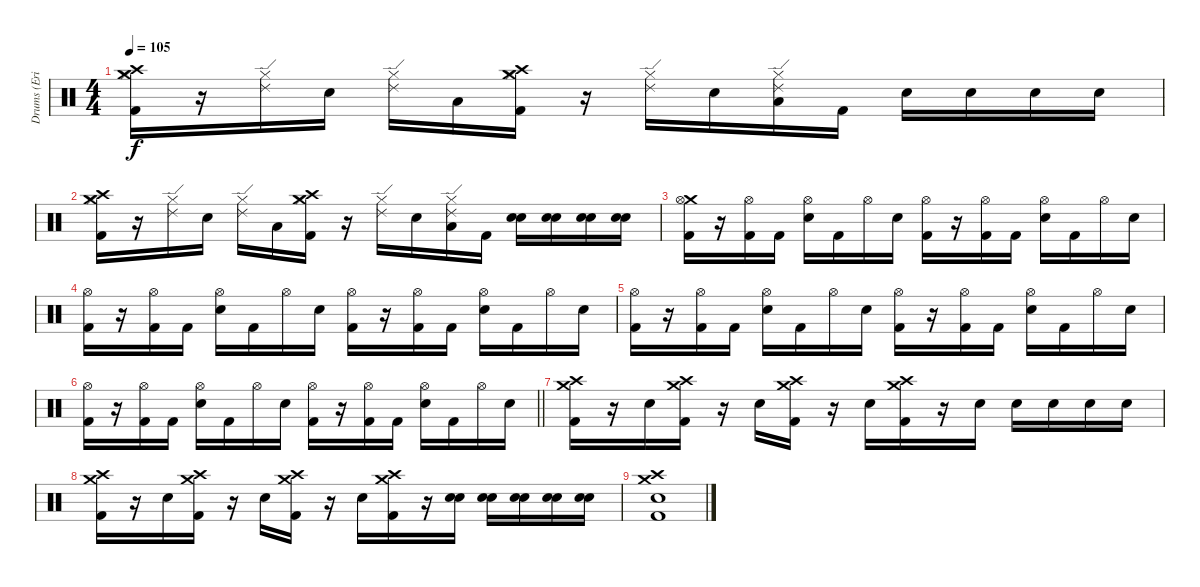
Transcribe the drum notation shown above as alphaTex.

\track ("Drums (Eric Kretz)" "Drums (Eri") {instrument percussion}
\staff {score}
\articulation defaults
\ts (4 4)
\tempo 105
\clef neutral
\ks c
("Crash medium (hit)" "Crash high (hit)" "Hi-Hat (closed)" "Kick (hit) 2").16{dy f} r.16 ("Ride (edge) 2" "Hi-Hat (closed)").16 "Electric Snare (hit)".16 ("Ride (edge) 2" "Hi-Hat (closed)").16 "Low Tom (hit)".16 ("Crash medium (hit)" "Crash high (hit)" "Hi-Hat (closed)" "Kick (hit) 2").16 r.16 ("Ride (edge) 2" "Hi-Hat (closed)").16 "Electric Snare (hit)".16 ("Ride (edge) 2" "Hi-Hat (closed)" "Low Tom (hit)").16 "Kick (hit) 2".16 "Electric Snare (hit)".16 "Electric Snare (hit)".16 "Electric Snare (hit)".16 "Electric Snare (hit)".16 |
("Crash medium (hit)" "Crash high (hit)" "Hi-Hat (closed)" "Kick (hit) 2").16 r.16 ("Ride (edge) 2" "Hi-Hat (closed)").16 "Electric Snare (hit)".16 ("Ride (edge) 2" "Hi-Hat (closed)").16 "Low Tom (hit)".16 ("Crash medium (hit)" "Crash high (hit)" "Hi-Hat (closed)" "Kick (hit) 2").16 r.16 ("Ride (edge) 2" "Hi-Hat (closed)").16 "Electric Snare (hit)".16 ("Ride (edge) 2" "Hi-Hat (closed)" "Low Tom (hit)").16 "Kick (hit) 2".16 ("Snare (hit) 2" "Electric Snare (hit)").16 ("Snare (hit) 2" "Electric Snare (hit)").16 ("Snare (hit) 2" "Electric Snare (hit)").16 ("Snare (hit) 2" "Electric Snare (hit)").16 |
("Crash medium (hit)" "Hi-Hat (open)" "Kick (hit) 2").16 r.16 ("Hi-Hat (open)" "Kick (hit) 2").16 "Kick (hit) 2".16 ("Hi-Hat (open)" "Electric Snare (hit)").16 "Kick (hit) 2".16 "Hi-Hat (open)".16 "Electric Snare (hit)".16 ("Hi-Hat (open)" "Kick (hit) 2").16 r.16 ("Hi-Hat (open)" "Kick (hit) 2").16 "Kick (hit) 2".16 ("Hi-Hat (open)" "Electric Snare (hit)").16 "Kick (hit) 2".16 "Hi-Hat (open)".16 "Electric Snare (hit)".16 |
("Hi-Hat (open)" "Kick (hit) 2").16 r.16 ("Hi-Hat (open)" "Kick (hit) 2").16 "Kick (hit) 2".16 ("Hi-Hat (open)" "Electric Snare (hit)").16 "Kick (hit) 2".16 "Hi-Hat (open)".16 "Electric Snare (hit)".16 ("Hi-Hat (open)" "Kick (hit) 2").16 r.16 ("Hi-Hat (open)" "Kick (hit) 2").16 "Kick (hit) 2".16 ("Hi-Hat (open)" "Electric Snare (hit)").16 "Kick (hit) 2".16 "Hi-Hat (open)".16 "Electric Snare (hit)".16 |
("Hi-Hat (open)" "Kick (hit) 2").16 r.16 ("Hi-Hat (open)" "Kick (hit) 2").16 "Kick (hit) 2".16 ("Hi-Hat (open)" "Electric Snare (hit)").16 "Kick (hit) 2".16 "Hi-Hat (open)".16 "Electric Snare (hit)".16 ("Hi-Hat (open)" "Kick (hit) 2").16 r.16 ("Hi-Hat (open)" "Kick (hit) 2").16 "Kick (hit) 2".16 ("Hi-Hat (open)" "Electric Snare (hit)").16 "Kick (hit) 2".16 "Hi-Hat (open)".16 "Electric Snare (hit)".16 |
\barLineRight lightlight
("Hi-Hat (open)" "Kick (hit) 2").16 r.16 ("Hi-Hat (open)" "Kick (hit) 2").16 "Kick (hit) 2".16 ("Hi-Hat (open)" "Electric Snare (hit)").16 "Kick (hit) 2".16 "Hi-Hat (open)".16 "Electric Snare (hit)".16 ("Hi-Hat (open)" "Kick (hit) 2").16 r.16 ("Hi-Hat (open)" "Kick (hit) 2").16 "Kick (hit) 2".16 ("Hi-Hat (open)" "Electric Snare (hit)").16 "Kick (hit) 2".16 "Hi-Hat (open)".16 "Electric Snare (hit)".16 |
("Crash medium (hit)" "Crash high (hit)" "Kick (hit) 2").16 r.16 "Electric Snare (hit)".16 ("Crash high (hit)" "Crash medium (hit)" "Kick (hit) 2").16 r.16 "Electric Snare (hit)".16 ("Crash medium (hit)" "Crash high (hit)" "Kick (hit) 2").16 r.16 "Electric Snare (hit)".16 ("Crash high (hit)" "Crash medium (hit)" "Kick (hit) 2").16 r.16 "Electric Snare (hit)".16 "Electric Snare (hit)".16 "Electric Snare (hit)".16 "Electric Snare (hit)".16 "Electric Snare (hit)".16 |
("Crash medium (hit)" "Crash high (hit)" "Kick (hit) 2").16 r.16 "Electric Snare (hit)".16 ("Crash high (hit)" "Crash medium (hit)" "Kick (hit) 2").16 r.16 "Electric Snare (hit)".16 ("Crash medium (hit)" "Crash high (hit)" "Kick (hit) 2").16 r.16 "Electric Snare (hit)".16 ("Crash high (hit)" "Crash medium (hit)" "Kick (hit) 2").16 r.16 ("Snare (hit) 2" "Electric Snare (hit)").16 ("Snare (hit) 2" "Electric Snare (hit)").16 ("Snare (hit) 2" "Electric Snare (hit)").16 ("Snare (hit) 2" "Electric Snare (hit)").16 ("Snare (hit) 2" "Electric Snare (hit)").16 |
("Crash medium (hit)" "Crash high (hit)" "Electric Snare (hit)" "Kick (hit) 2").1
